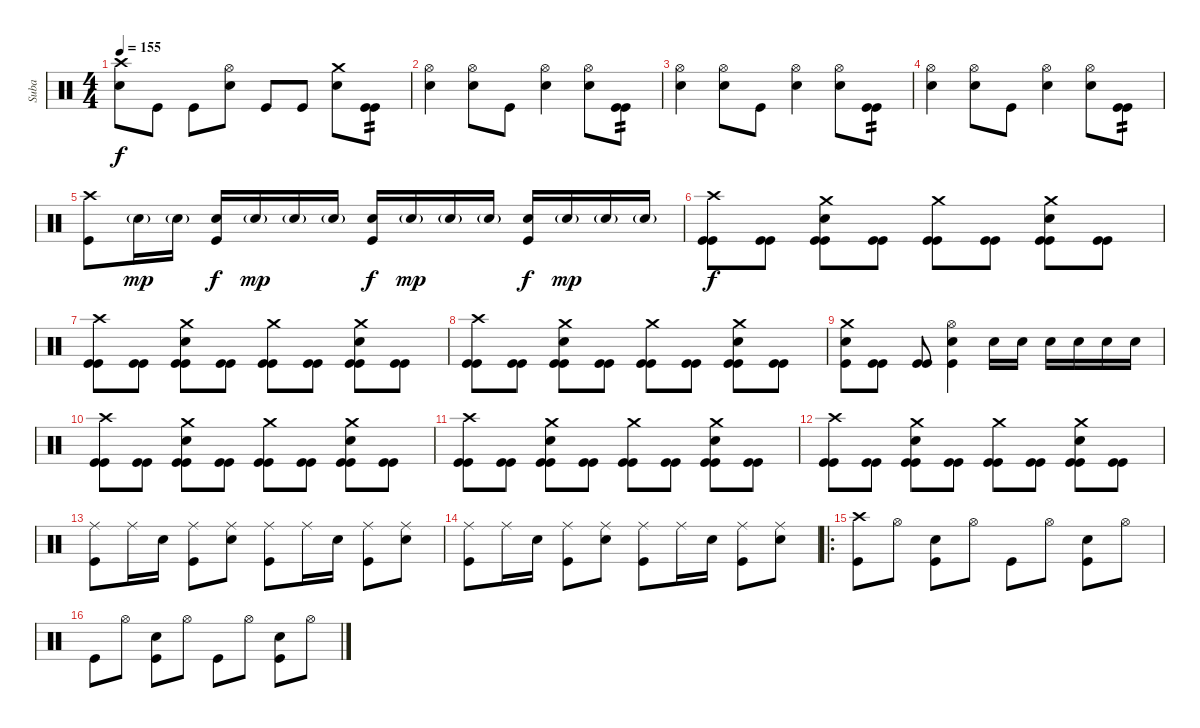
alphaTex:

\track ("Suba" "Suba") {instrument percussion}
\staff {score}
\articulation defaults
\ts (4 4)
\tempo 155
\clef neutral
\ks c
("Crash high (hit)" "Electric Snare (hit)").8{dy f} "Kick (hit)".8 "Kick (hit)".8 ("Hi-Hat (open)" "Electric Snare (hit)").8 "Kick (hit)".8 "Kick (hit)".8 ("Crash medium (hit)" "Electric Snare (hit)").8 ("Kick (hit)" "Kick (hit)").8{tp 2} |
("Hi-Hat (open)" "Electric Snare (hit)").4 ("Hi-Hat (open)" "Electric Snare (hit)").8 "Kick (hit)".8 ("Hi-Hat (open)" "Electric Snare (hit)").4 ("Hi-Hat (open)" "Electric Snare (hit)").8 ("Kick (hit)" "Kick (hit)").8{tp 2} |
("Hi-Hat (open)" "Electric Snare (hit)").4 ("Hi-Hat (open)" "Electric Snare (hit)").8 "Kick (hit)".8 ("Hi-Hat (open)" "Electric Snare (hit)").4 ("Hi-Hat (open)" "Electric Snare (hit)").8 ("Kick (hit)" "Kick (hit)").8{tp 2} |
("Hi-Hat (open)" "Electric Snare (hit)").4 ("Hi-Hat (open)" "Electric Snare (hit)").8 "Kick (hit)".8 ("Hi-Hat (open)" "Electric Snare (hit)").4 ("Hi-Hat (open)" "Electric Snare (hit)").8 ("Kick (hit)" "Kick (hit)").8{tp 2} |
("Crash high (hit)" "Kick (hit)").8 "Electric Snare (hit)"{g}.16{dy mp} "Electric Snare (hit)"{g}.16 ("Electric Snare (hit)" "Kick (hit)").16{dy f} "Electric Snare (hit)"{g}.16{dy mp} "Electric Snare (hit)"{g}.16 "Electric Snare (hit)"{g}.16 ("Electric Snare (hit)" "Kick (hit)").16{dy f} "Electric Snare (hit)"{g}.16{dy mp} "Electric Snare (hit)"{g}.16 "Electric Snare (hit)"{g}.16 ("Electric Snare (hit)" "Kick (hit)").16{dy f} "Electric Snare (hit)"{g}.16{dy mp} "Electric Snare (hit)"{g}.16 "Electric Snare (hit)"{g}.16 |
("Crash high (hit)" "Kick (hit)" "Kick (hit)").8{dy f} ("Kick (hit)" "Kick (hit)").8 ("Crash medium (hit)" "Kick (hit)" "Electric Snare (hit)" "Kick (hit)").8 ("Kick (hit)" "Kick (hit)").8 ("Crash medium (hit)" "Kick (hit)" "Kick (hit)").8 ("Kick (hit)" "Kick (hit)").8 ("Crash medium (hit)" "Kick (hit)" "Electric Snare (hit)" "Kick (hit)").8 ("Kick (hit)" "Kick (hit)").8 |
("Crash high (hit)" "Kick (hit)" "Kick (hit)").8 ("Kick (hit)" "Kick (hit)").8 ("Crash medium (hit)" "Kick (hit)" "Electric Snare (hit)" "Kick (hit)").8 ("Kick (hit)" "Kick (hit)").8 ("Crash medium (hit)" "Kick (hit)" "Kick (hit)").8 ("Kick (hit)" "Kick (hit)").8 ("Crash medium (hit)" "Kick (hit)" "Electric Snare (hit)" "Kick (hit)").8 ("Kick (hit)" "Kick (hit)").8 |
("Crash high (hit)" "Kick (hit)" "Kick (hit)").8 ("Kick (hit)" "Kick (hit)").8 ("Crash medium (hit)" "Kick (hit)" "Electric Snare (hit)" "Kick (hit)").8 ("Kick (hit)" "Kick (hit)").8 ("Crash medium (hit)" "Kick (hit)" "Kick (hit)").8 ("Kick (hit)" "Kick (hit)").8 ("Crash medium (hit)" "Kick (hit)" "Electric Snare (hit)" "Kick (hit)").8 ("Kick (hit)" "Kick (hit)").8 |
("Crash medium (hit)" "Electric Snare (hit)" "Kick (hit)").8 ("Kick (hit)" "Kick (hit)").8 ("Kick (hit)" "Kick (hit)").8 ("Hi-Hat (open)" "Electric Snare (hit)" "Kick (hit)").4 "Electric Snare (hit)".16 "Electric Snare (hit)".16 "Electric Snare (hit)".16 "Electric Snare (hit)".16 "Electric Snare (hit)".16 "Electric Snare (hit)".16 |
("Crash high (hit)" "Kick (hit)" "Kick (hit)").8 ("Kick (hit)" "Kick (hit)").8 ("Crash medium (hit)" "Kick (hit)" "Electric Snare (hit)" "Kick (hit)").8 ("Kick (hit)" "Kick (hit)").8 ("Crash medium (hit)" "Kick (hit)" "Kick (hit)").8 ("Kick (hit)" "Kick (hit)").8 ("Crash medium (hit)" "Kick (hit)" "Electric Snare (hit)" "Kick (hit)").8 ("Kick (hit)" "Kick (hit)").8 |
("Crash high (hit)" "Kick (hit)" "Kick (hit)").8 ("Kick (hit)" "Kick (hit)").8 ("Crash medium (hit)" "Kick (hit)" "Electric Snare (hit)" "Kick (hit)").8 ("Kick (hit)" "Kick (hit)").8 ("Crash medium (hit)" "Kick (hit)" "Kick (hit)").8 ("Kick (hit)" "Kick (hit)").8 ("Crash medium (hit)" "Kick (hit)" "Electric Snare (hit)" "Kick (hit)").8 ("Kick (hit)" "Kick (hit)").8 |
("Crash high (hit)" "Kick (hit)" "Kick (hit)").8 ("Kick (hit)" "Kick (hit)").8 ("Crash medium (hit)" "Kick (hit)" "Electric Snare (hit)" "Kick (hit)").8 ("Kick (hit)" "Kick (hit)").8 ("Crash medium (hit)" "Kick (hit)" "Kick (hit)").8 ("Kick (hit)" "Kick (hit)").8 ("Crash medium (hit)" "Kick (hit)" "Electric Snare (hit)" "Kick (hit)").8 ("Kick (hit)" "Kick (hit)").8 |
("Ride (middle)" "Kick (hit)").8{volume 7} "Ride (middle)".16 "Electric Snare (hit)".16 ("Ride (middle)" "Kick (hit)").8 ("Ride (middle)" "Electric Snare (hit)").8 ("Ride (middle)" "Kick (hit)").8 "Ride (middle)".16 "Electric Snare (hit)".16 ("Ride (middle)" "Kick (hit)").8 ("Ride (middle)" "Electric Snare (hit)").8 |
("Ride (middle)" "Kick (hit)").8 "Ride (middle)".16 "Electric Snare (hit)".16 ("Ride (middle)" "Kick (hit)").8 ("Ride (middle)" "Electric Snare (hit)").8 ("Ride (middle)" "Kick (hit)").8 "Ride (middle)".16 "Electric Snare (hit)".16 ("Ride (middle)" "Kick (hit)").8 ("Ride (middle)" "Electric Snare (hit)").8 |
\ro
("Crash high (hit)" "Kick (hit)").8{volume 11} "Hi-Hat (open)".8 ("Electric Snare (hit)" "Kick (hit)").8 "Hi-Hat (open)".8 "Kick (hit)".8 "Hi-Hat (open)".8 ("Electric Snare (hit)" "Kick (hit)").8 "Hi-Hat (open)".8 |
"Kick (hit)".8 "Hi-Hat (open)".8 ("Electric Snare (hit)" "Kick (hit)").8 "Hi-Hat (open)".8 "Kick (hit)".8 "Hi-Hat (open)".8 ("Electric Snare (hit)" "Kick (hit)").8 "Hi-Hat (open)".8
